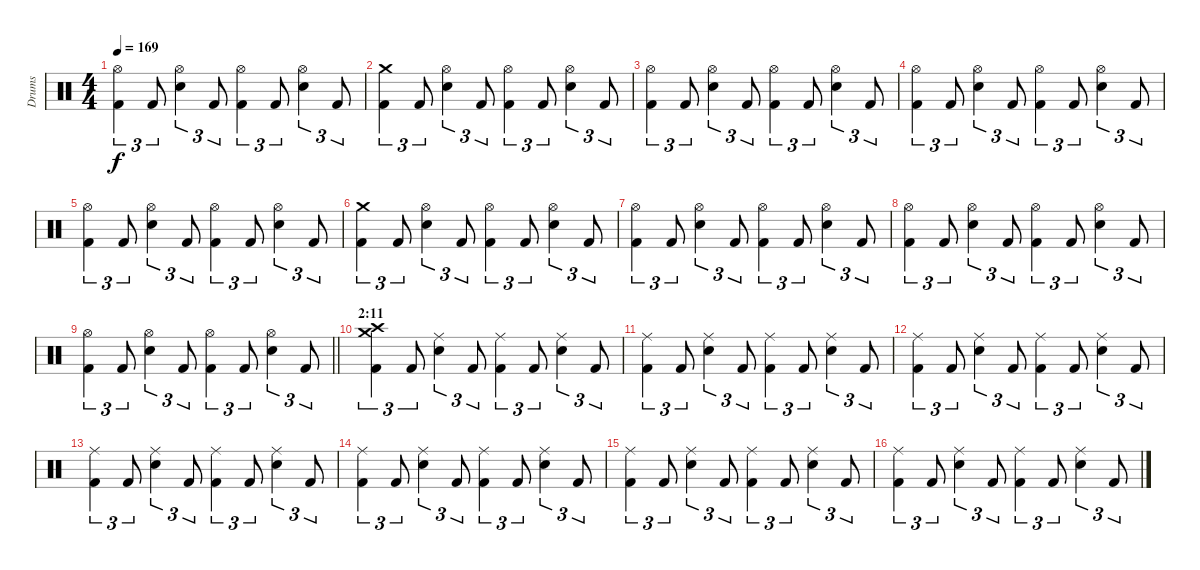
\track ("Drums" "Drums") {instrument percussion}
\staff {score}
\articulation defaults
\ts (4 4)
\tempo 169
\clef neutral
\ks c
("Hi-Hat (open)" "Kick (hit) 2").4{tu (3 2) dy f} "Kick (hit) 2".8{tu (3 2)} ("Hi-Hat (open)" "Snare (hit) 2").4{tu (3 2)} "Kick (hit) 2".8{tu (3 2)} ("Hi-Hat (open)" "Kick (hit) 2").4{tu (3 2)} "Kick (hit) 2".8{tu (3 2)} ("Hi-Hat (open)" "Snare (hit) 2").4{tu (3 2)} "Kick (hit) 2".8{tu (3 2)} |
("Crash medium (hit)" "Kick (hit) 2").4{tu (3 2)} "Kick (hit) 2".8{tu (3 2)} ("Hi-Hat (open)" "Snare (hit) 2").4{tu (3 2)} "Kick (hit) 2".8{tu (3 2)} ("Hi-Hat (open)" "Kick (hit) 2").4{tu (3 2)} "Kick (hit) 2".8{tu (3 2)} ("Hi-Hat (open)" "Snare (hit) 2").4{tu (3 2)} "Kick (hit) 2".8{tu (3 2)} |
("Hi-Hat (open)" "Kick (hit) 2").4{tu (3 2)} "Kick (hit) 2".8{tu (3 2)} ("Hi-Hat (open)" "Snare (hit) 2").4{tu (3 2)} "Kick (hit) 2".8{tu (3 2)} ("Hi-Hat (open)" "Kick (hit) 2").4{tu (3 2)} "Kick (hit) 2".8{tu (3 2)} ("Hi-Hat (open)" "Snare (hit) 2").4{tu (3 2)} "Kick (hit) 2".8{tu (3 2)} |
("Hi-Hat (open)" "Kick (hit) 2").4{tu (3 2)} "Kick (hit) 2".8{tu (3 2)} ("Hi-Hat (open)" "Snare (hit) 2").4{tu (3 2)} "Kick (hit) 2".8{tu (3 2)} ("Hi-Hat (open)" "Kick (hit) 2").4{tu (3 2)} "Kick (hit) 2".8{tu (3 2)} ("Hi-Hat (open)" "Snare (hit) 2").4{tu (3 2)} "Kick (hit) 2".8{tu (3 2)} |
("Hi-Hat (open)" "Kick (hit) 2").4{tu (3 2)} "Kick (hit) 2".8{tu (3 2)} ("Hi-Hat (open)" "Snare (hit) 2").4{tu (3 2)} "Kick (hit) 2".8{tu (3 2)} ("Hi-Hat (open)" "Kick (hit) 2").4{tu (3 2)} "Kick (hit) 2".8{tu (3 2)} ("Hi-Hat (open)" "Snare (hit) 2").4{tu (3 2)} "Kick (hit) 2".8{tu (3 2)} |
("Crash medium (hit)" "Kick (hit) 2").4{tu (3 2)} "Kick (hit) 2".8{tu (3 2)} ("Hi-Hat (open)" "Snare (hit) 2").4{tu (3 2)} "Kick (hit) 2".8{tu (3 2)} ("Hi-Hat (open)" "Kick (hit) 2").4{tu (3 2)} "Kick (hit) 2".8{tu (3 2)} ("Hi-Hat (open)" "Snare (hit) 2").4{tu (3 2)} "Kick (hit) 2".8{tu (3 2)} |
("Hi-Hat (open)" "Kick (hit) 2").4{tu (3 2)} "Kick (hit) 2".8{tu (3 2)} ("Hi-Hat (open)" "Snare (hit) 2").4{tu (3 2)} "Kick (hit) 2".8{tu (3 2)} ("Hi-Hat (open)" "Kick (hit) 2").4{tu (3 2)} "Kick (hit) 2".8{tu (3 2)} ("Hi-Hat (open)" "Snare (hit) 2").4{tu (3 2)} "Kick (hit) 2".8{tu (3 2)} |
("Hi-Hat (open)" "Kick (hit) 2").4{tu (3 2)} "Kick (hit) 2".8{tu (3 2)} ("Hi-Hat (open)" "Snare (hit) 2").4{tu (3 2)} "Kick (hit) 2".8{tu (3 2)} ("Hi-Hat (open)" "Kick (hit) 2").4{tu (3 2)} "Kick (hit) 2".8{tu (3 2)} ("Hi-Hat (open)" "Snare (hit) 2").4{tu (3 2)} "Kick (hit) 2".8{tu (3 2)} |
\barLineRight lightlight
("Hi-Hat (open)" "Kick (hit) 2").4{tu (3 2)} "Kick (hit) 2".8{tu (3 2)} ("Hi-Hat (open)" "Snare (hit) 2").4{tu (3 2)} "Kick (hit) 2".8{tu (3 2)} ("Hi-Hat (open)" "Kick (hit) 2").4{tu (3 2)} "Kick (hit) 2".8{tu (3 2)} ("Hi-Hat (open)" "Snare (hit) 2").4{tu (3 2)} "Kick (hit) 2".8{tu (3 2)} |
\section ("" "2:11")
("Crash high (hit)" "Crash medium (hit)" "Kick (hit) 2").4{tu (3 2)} "Kick (hit) 2".8{tu (3 2)} ("Ride (middle)" "Snare (hit) 2").4{tu (3 2)} "Kick (hit) 2".8{tu (3 2)} ("Ride (middle)" "Kick (hit) 2").4{tu (3 2)} "Kick (hit) 2".8{tu (3 2)} ("Ride (middle)" "Snare (hit) 2").4{tu (3 2)} "Kick (hit) 2".8{tu (3 2)} |
("Ride (middle)" "Kick (hit) 2").4{tu (3 2)} "Kick (hit) 2".8{tu (3 2)} ("Ride (middle)" "Snare (hit) 2").4{tu (3 2)} "Kick (hit) 2".8{tu (3 2)} ("Ride (middle)" "Kick (hit) 2").4{tu (3 2)} "Kick (hit) 2".8{tu (3 2)} ("Ride (middle)" "Snare (hit) 2").4{tu (3 2)} "Kick (hit) 2".8{tu (3 2)} |
("Ride (middle)" "Kick (hit) 2").4{tu (3 2)} "Kick (hit) 2".8{tu (3 2)} ("Ride (middle)" "Snare (hit) 2").4{tu (3 2)} "Kick (hit) 2".8{tu (3 2)} ("Ride (middle)" "Kick (hit) 2").4{tu (3 2)} "Kick (hit) 2".8{tu (3 2)} ("Ride (middle)" "Snare (hit) 2").4{tu (3 2)} "Kick (hit) 2".8{tu (3 2)} |
("Ride (middle)" "Kick (hit) 2").4{tu (3 2)} "Kick (hit) 2".8{tu (3 2)} ("Ride (middle)" "Snare (hit) 2").4{tu (3 2)} "Kick (hit) 2".8{tu (3 2)} ("Ride (middle)" "Kick (hit) 2").4{tu (3 2)} "Kick (hit) 2".8{tu (3 2)} ("Ride (middle)" "Snare (hit) 2").4{tu (3 2)} "Kick (hit) 2".8{tu (3 2)} |
("Ride (middle)" "Kick (hit) 2").4{tu (3 2)} "Kick (hit) 2".8{tu (3 2)} ("Ride (middle)" "Snare (hit) 2").4{tu (3 2)} "Kick (hit) 2".8{tu (3 2)} ("Ride (middle)" "Kick (hit) 2").4{tu (3 2)} "Kick (hit) 2".8{tu (3 2)} ("Ride (middle)" "Snare (hit) 2").4{tu (3 2)} "Kick (hit) 2".8{tu (3 2)} |
("Ride (middle)" "Kick (hit) 2").4{tu (3 2)} "Kick (hit) 2".8{tu (3 2)} ("Ride (middle)" "Snare (hit) 2").4{tu (3 2)} "Kick (hit) 2".8{tu (3 2)} ("Ride (middle)" "Kick (hit) 2").4{tu (3 2)} "Kick (hit) 2".8{tu (3 2)} ("Ride (middle)" "Snare (hit) 2").4{tu (3 2)} "Kick (hit) 2".8{tu (3 2)} |
("Ride (middle)" "Kick (hit) 2").4{tu (3 2)} "Kick (hit) 2".8{tu (3 2)} ("Ride (middle)" "Snare (hit) 2").4{tu (3 2)} "Kick (hit) 2".8{tu (3 2)} ("Ride (middle)" "Kick (hit) 2").4{tu (3 2)} "Kick (hit) 2".8{tu (3 2)} ("Ride (middle)" "Snare (hit) 2").4{tu (3 2)} "Kick (hit) 2".8{tu (3 2)}
